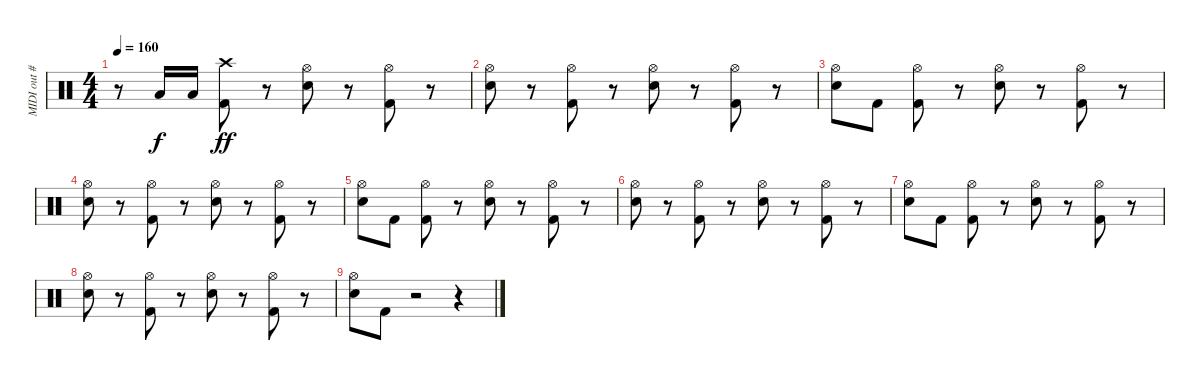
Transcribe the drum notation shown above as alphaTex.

\track ("MIDI out #4" "MIDI out #") {instrument percussion}
\staff {score}
\articulation defaults
\ts (4 4)
\tempo 160
\clef neutral
\ks c
r.8{dy f} "Low Floor Tom (hit)".16 "Low Floor Tom (hit)".16 ("Crash high (hit)" "Kick (hit) 2").8{dy ff} r.8 ("Hi-Hat (open)" "Snare (hit) 2").8 r.8 ("Hi-Hat (open)" "Kick (hit) 2").8 r.8 |
("Hi-Hat (open)" "Snare (hit) 2").8 r.8 ("Hi-Hat (open)" "Kick (hit) 2").8 r.8 ("Hi-Hat (open)" "Snare (hit) 2").8 r.8 ("Hi-Hat (open)" "Kick (hit) 2").8 r.8 |
("Hi-Hat (open)" "Snare (hit) 2").8 "Kick (hit) 2".8 ("Hi-Hat (open)" "Kick (hit) 2").8 r.8 ("Hi-Hat (open)" "Snare (hit) 2").8 r.8 ("Hi-Hat (open)" "Kick (hit) 2").8 r.8 |
("Hi-Hat (open)" "Snare (hit) 2").8 r.8 ("Hi-Hat (open)" "Kick (hit) 2").8 r.8 ("Hi-Hat (open)" "Snare (hit) 2").8 r.8 ("Hi-Hat (open)" "Kick (hit) 2").8 r.8 |
("Hi-Hat (open)" "Snare (hit) 2").8 "Kick (hit) 2".8 ("Hi-Hat (open)" "Kick (hit) 2").8 r.8 ("Hi-Hat (open)" "Snare (hit) 2").8 r.8 ("Hi-Hat (open)" "Kick (hit) 2").8 r.8 |
("Hi-Hat (open)" "Snare (hit) 2").8 r.8 ("Hi-Hat (open)" "Kick (hit) 2").8 r.8 ("Hi-Hat (open)" "Snare (hit) 2").8 r.8 ("Hi-Hat (open)" "Kick (hit) 2").8 r.8 |
("Hi-Hat (open)" "Snare (hit) 2").8 "Kick (hit) 2".8 ("Hi-Hat (open)" "Kick (hit) 2").8 r.8 ("Hi-Hat (open)" "Snare (hit) 2").8 r.8 ("Hi-Hat (open)" "Kick (hit) 2").8 r.8 |
("Hi-Hat (open)" "Snare (hit) 2").8 r.8 ("Hi-Hat (open)" "Kick (hit) 2").8 r.8 ("Hi-Hat (open)" "Snare (hit) 2").8 r.8 ("Hi-Hat (open)" "Kick (hit) 2").8 r.8 |
("Hi-Hat (open)" "Snare (hit) 2").8 "Kick (hit) 2".8 r.2 r.4
